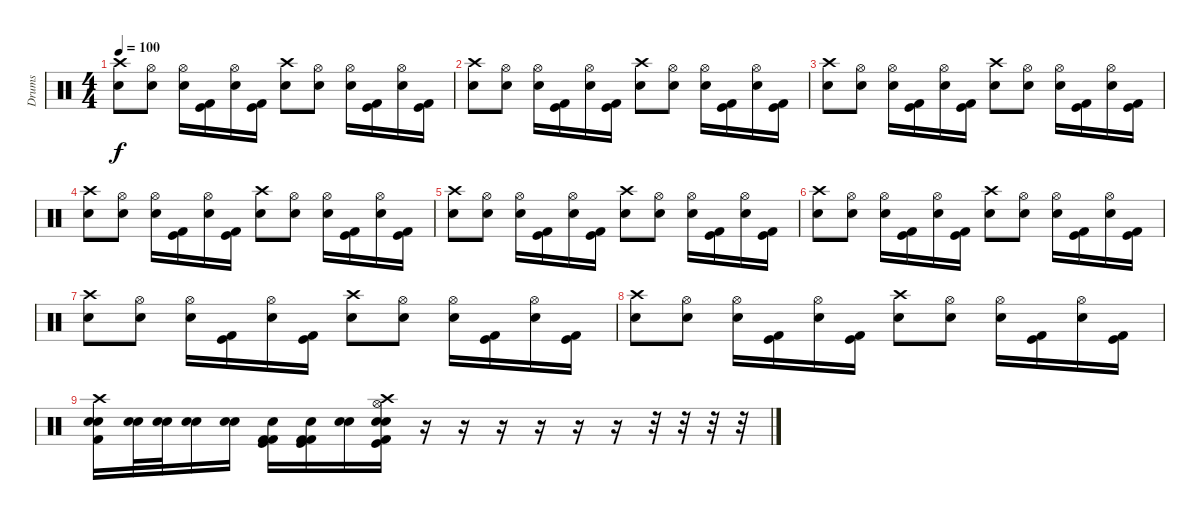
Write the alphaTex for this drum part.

\track ("Drums" "Drums") {instrument percussion}
\staff {score}
\articulation defaults
\ts (4 4)
\tempo 100
\clef neutral
\ks c
("Crash high (hit)" "Electric Snare (hit)").8{dy f} ("Hi-Hat (open)" "Electric Snare (hit)").8 ("Hi-Hat (open)" "Electric Snare (hit)").16 ("Kick (hit)" "Kick (hit) 2").16 ("Hi-Hat (open)" "Electric Snare (hit)").16 ("Kick (hit)" "Kick (hit) 2").16 ("Crash high (hit)" "Electric Snare (hit)").8 ("Hi-Hat (open)" "Electric Snare (hit)").8 ("Hi-Hat (open)" "Electric Snare (hit)").16 ("Kick (hit)" "Kick (hit) 2").16 ("Hi-Hat (open)" "Electric Snare (hit)").16 ("Kick (hit)" "Kick (hit) 2").16 |
("Crash high (hit)" "Electric Snare (hit)").8 ("Hi-Hat (open)" "Electric Snare (hit)").8 ("Hi-Hat (open)" "Electric Snare (hit)").16 ("Kick (hit)" "Kick (hit) 2").16 ("Hi-Hat (open)" "Electric Snare (hit)").16 ("Kick (hit)" "Kick (hit) 2").16 ("Crash high (hit)" "Electric Snare (hit)").8 ("Hi-Hat (open)" "Electric Snare (hit)").8 ("Hi-Hat (open)" "Electric Snare (hit)").16 ("Kick (hit)" "Kick (hit) 2").16 ("Hi-Hat (open)" "Electric Snare (hit)").16 ("Kick (hit)" "Kick (hit) 2").16 |
("Crash high (hit)" "Electric Snare (hit)").8 ("Hi-Hat (open)" "Electric Snare (hit)").8 ("Hi-Hat (open)" "Electric Snare (hit)").16 ("Kick (hit)" "Kick (hit) 2").16 ("Hi-Hat (open)" "Electric Snare (hit)").16 ("Kick (hit)" "Kick (hit) 2").16 ("Crash high (hit)" "Electric Snare (hit)").8 ("Hi-Hat (open)" "Electric Snare (hit)").8 ("Hi-Hat (open)" "Electric Snare (hit)").16 ("Kick (hit)" "Kick (hit) 2").16 ("Hi-Hat (open)" "Electric Snare (hit)").16 ("Kick (hit)" "Kick (hit) 2").16 |
("Crash high (hit)" "Electric Snare (hit)").8 ("Hi-Hat (open)" "Electric Snare (hit)").8 ("Hi-Hat (open)" "Electric Snare (hit)").16 ("Kick (hit)" "Kick (hit) 2").16 ("Hi-Hat (open)" "Electric Snare (hit)").16 ("Kick (hit)" "Kick (hit) 2").16 ("Crash high (hit)" "Electric Snare (hit)").8 ("Hi-Hat (open)" "Electric Snare (hit)").8 ("Hi-Hat (open)" "Electric Snare (hit)").16 ("Kick (hit)" "Kick (hit) 2").16 ("Hi-Hat (open)" "Electric Snare (hit)").16 ("Kick (hit)" "Kick (hit) 2").16 |
("Crash high (hit)" "Electric Snare (hit)").8 ("Hi-Hat (open)" "Electric Snare (hit)").8 ("Hi-Hat (open)" "Electric Snare (hit)").16 ("Kick (hit)" "Kick (hit) 2").16 ("Hi-Hat (open)" "Electric Snare (hit)").16 ("Kick (hit)" "Kick (hit) 2").16 ("Crash high (hit)" "Electric Snare (hit)").8 ("Hi-Hat (open)" "Electric Snare (hit)").8 ("Hi-Hat (open)" "Electric Snare (hit)").16 ("Kick (hit)" "Kick (hit) 2").16 ("Hi-Hat (open)" "Electric Snare (hit)").16 ("Kick (hit)" "Kick (hit) 2").16 |
("Crash high (hit)" "Electric Snare (hit)").8 ("Hi-Hat (open)" "Electric Snare (hit)").8 ("Hi-Hat (open)" "Electric Snare (hit)").16 ("Kick (hit)" "Kick (hit) 2").16 ("Hi-Hat (open)" "Electric Snare (hit)").16 ("Kick (hit)" "Kick (hit) 2").16 ("Crash high (hit)" "Electric Snare (hit)").8 ("Hi-Hat (open)" "Electric Snare (hit)").8 ("Hi-Hat (open)" "Electric Snare (hit)").16 ("Kick (hit)" "Kick (hit) 2").16 ("Hi-Hat (open)" "Electric Snare (hit)").16 ("Kick (hit)" "Kick (hit) 2").16 |
("Crash high (hit)" "Electric Snare (hit)").8 ("Hi-Hat (open)" "Electric Snare (hit)").8 ("Hi-Hat (open)" "Electric Snare (hit)").16 ("Kick (hit)" "Kick (hit) 2").16 ("Hi-Hat (open)" "Electric Snare (hit)").16 ("Kick (hit)" "Kick (hit) 2").16 ("Crash high (hit)" "Electric Snare (hit)").8 ("Hi-Hat (open)" "Electric Snare (hit)").8 ("Hi-Hat (open)" "Electric Snare (hit)").16 ("Kick (hit)" "Kick (hit) 2").16 ("Hi-Hat (open)" "Electric Snare (hit)").16 ("Kick (hit)" "Kick (hit) 2").16 |
("Crash high (hit)" "Electric Snare (hit)").8 ("Hi-Hat (open)" "Electric Snare (hit)").8 ("Hi-Hat (open)" "Electric Snare (hit)").16 ("Kick (hit)" "Kick (hit) 2").16 ("Hi-Hat (open)" "Electric Snare (hit)").16 ("Kick (hit)" "Kick (hit) 2").16 ("Crash high (hit)" "Electric Snare (hit)").8 ("Hi-Hat (open)" "Electric Snare (hit)").8 ("Hi-Hat (open)" "Electric Snare (hit)").16 ("Kick (hit)" "Kick (hit) 2").16 ("Hi-Hat (open)" "Electric Snare (hit)").16 ("Kick (hit)" "Kick (hit) 2").16 |
("Crash high (hit)" "Snare (hit) 2" "Electric Snare (hit)" "Kick (hit) 2").16 ("Snare (hit) 2" "Electric Snare (hit)").32 ("Snare (hit) 2" "Electric Snare (hit)").32 ("Snare (hit) 2" "Electric Snare (hit)").16 ("Snare (hit) 2" "Electric Snare (hit)").16 ("Snare (hit) 2" "Kick (hit) 2" "Kick (hit)" "Kick (hit) 2").16 ("Snare (hit) 2" "Kick (hit) 2" "Kick (hit)" "Kick (hit) 2").16 ("Snare (hit) 2" "Electric Snare (hit)").16 ("Crash high (hit)" "Hi-Hat (open)" "Snare (hit) 2" "Electric Snare (hit)" "Kick (hit)" "Kick (hit) 2").16 r.16 r.16 r.16 r.16 r.16 r.16 r.32 r.32 r.32 r.32
